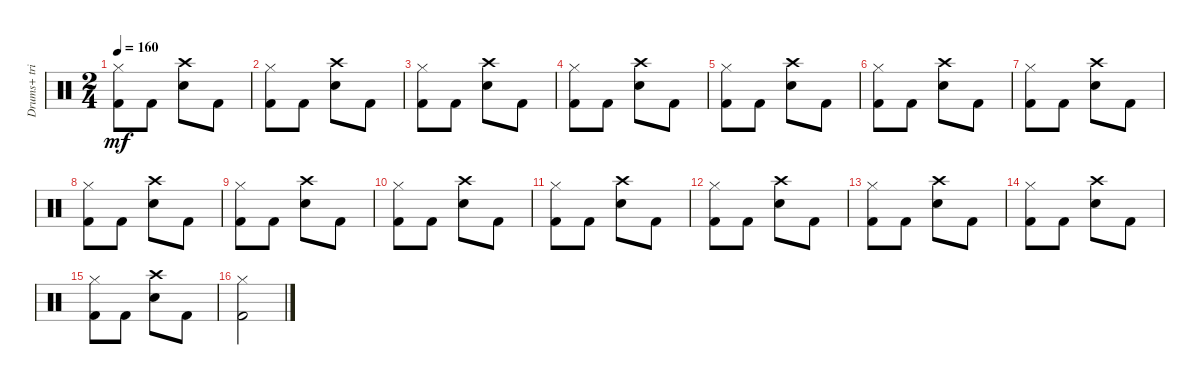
\track ("Drums+ triangle" "Drums+ tri") {instrument percussion}
\staff {score}
\articulation defaults
\ts (2 4)
\tempo 160
\clef neutral
\ks c
("Kick (hit) 2" "Hi-Hat (closed)").8{dy mf} "Kick (hit) 2".8 ("Snare (hit) 2" "Crash high (hit)").8 "Kick (hit) 2".8 |
("Kick (hit) 2" "Hi-Hat (closed)").8 "Kick (hit) 2".8 ("Snare (hit) 2" "Crash high (hit)").8 "Kick (hit) 2".8 |
("Kick (hit) 2" "Hi-Hat (closed)").8 "Kick (hit) 2".8 ("Snare (hit) 2" "Crash high (hit)").8 "Kick (hit) 2".8 |
("Kick (hit) 2" "Hi-Hat (closed)").8 "Kick (hit) 2".8 ("Snare (hit) 2" "Crash high (hit)").8 "Kick (hit) 2".8 |
("Kick (hit) 2" "Hi-Hat (closed)").8 "Kick (hit) 2".8 ("Snare (hit) 2" "Crash high (hit)").8 "Kick (hit) 2".8 |
("Kick (hit) 2" "Hi-Hat (closed)").8 "Kick (hit) 2".8 ("Snare (hit) 2" "Crash high (hit)").8 "Kick (hit) 2".8 |
("Kick (hit) 2" "Hi-Hat (closed)").8 "Kick (hit) 2".8 ("Snare (hit) 2" "Crash high (hit)").8 "Kick (hit) 2".8 |
("Kick (hit) 2" "Hi-Hat (closed)").8 "Kick (hit) 2".8 ("Snare (hit) 2" "Crash high (hit)").8 "Kick (hit) 2".8 |
("Kick (hit) 2" "Hi-Hat (closed)").8 "Kick (hit) 2".8 ("Snare (hit) 2" "Crash high (hit)").8 "Kick (hit) 2".8 |
("Kick (hit) 2" "Hi-Hat (closed)").8 "Kick (hit) 2".8 ("Snare (hit) 2" "Crash high (hit)").8 "Kick (hit) 2".8 |
("Kick (hit) 2" "Hi-Hat (closed)").8 "Kick (hit) 2".8 ("Snare (hit) 2" "Crash high (hit)").8 "Kick (hit) 2".8 |
("Kick (hit) 2" "Hi-Hat (closed)").8 "Kick (hit) 2".8 ("Snare (hit) 2" "Crash high (hit)").8 "Kick (hit) 2".8 |
("Kick (hit) 2" "Hi-Hat (closed)").8 "Kick (hit) 2".8 ("Snare (hit) 2" "Crash high (hit)").8 "Kick (hit) 2".8 |
("Kick (hit) 2" "Hi-Hat (closed)").8 "Kick (hit) 2".8 ("Snare (hit) 2" "Crash high (hit)").8 "Kick (hit) 2".8 |
("Kick (hit) 2" "Hi-Hat (closed)").8 "Kick (hit) 2".8 ("Snare (hit) 2" "Crash high (hit)").8 "Kick (hit) 2".8 |
("Hi-Hat (closed)" "Kick (hit) 2").2
